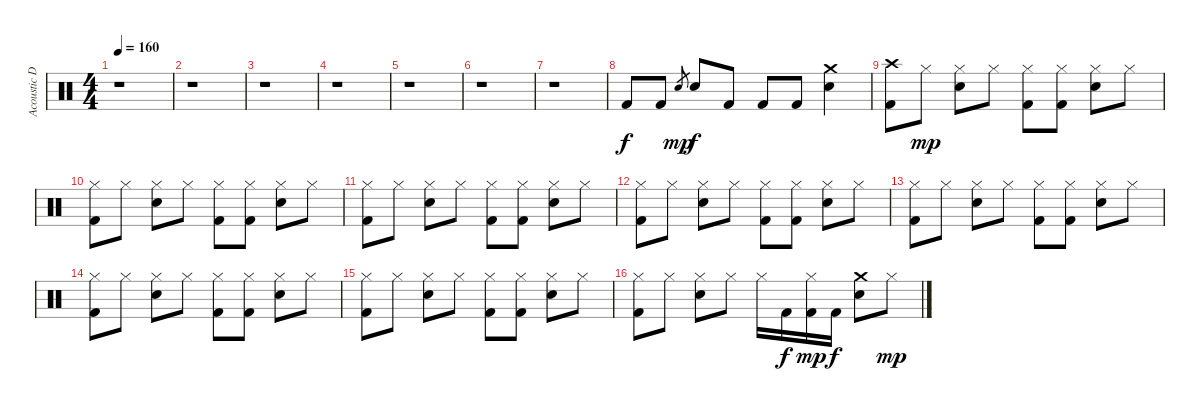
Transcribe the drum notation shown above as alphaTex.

\track ("Acoustic Drums" "Acoustic D") {instrument percussion}
\staff {score}
\articulation defaults
\ts (4 4)
\tempo 160
\clef neutral
\ks c
r.1{dy f} |
r.1 |
r.1 |
r.1 |
r.1 |
r.1 |
r.1 |
"Kick (hit) 2".8{volume 13} "Kick (hit) 2".8 "Snare (hit) 2".8{gr dy mp} "Snare (hit) 2".8{dy f} "Kick (hit) 2".8 "Kick (hit) 2".8 "Kick (hit) 2".8 ("Crash medium (hit)" "Snare (hit) 2").4 |
("Crash high (hit)" "Kick (hit) 2").8{volume 13} "Hi-Hat (closed)".8{dy mp} ("Hi-Hat (closed)" "Snare (hit) 2").8 "Hi-Hat (closed)".8 ("Hi-Hat (closed)" "Kick (hit) 2").8 ("Hi-Hat (closed)" "Kick (hit) 2").8 ("Hi-Hat (closed)" "Snare (hit) 2").8 "Hi-Hat (closed)".8 |
("Hi-Hat (closed)" "Kick (hit) 2").8 "Hi-Hat (closed)".8 ("Hi-Hat (closed)" "Snare (hit) 2").8 "Hi-Hat (closed)".8 ("Hi-Hat (closed)" "Kick (hit) 2").8 ("Hi-Hat (closed)" "Kick (hit) 2").8 ("Hi-Hat (closed)" "Snare (hit) 2").8 "Hi-Hat (closed)".8 |
("Hi-Hat (closed)" "Kick (hit) 2").8 "Hi-Hat (closed)".8 ("Hi-Hat (closed)" "Snare (hit) 2").8 "Hi-Hat (closed)".8 ("Hi-Hat (closed)" "Kick (hit) 2").8 ("Hi-Hat (closed)" "Kick (hit) 2").8 ("Hi-Hat (closed)" "Snare (hit) 2").8 "Hi-Hat (closed)".8 |
("Hi-Hat (closed)" "Kick (hit) 2").8 "Hi-Hat (closed)".8 ("Hi-Hat (closed)" "Snare (hit) 2").8 "Hi-Hat (closed)".8 ("Hi-Hat (closed)" "Kick (hit) 2").8 ("Hi-Hat (closed)" "Kick (hit) 2").8 ("Hi-Hat (closed)" "Snare (hit) 2").8 "Hi-Hat (closed)".8 |
("Hi-Hat (closed)" "Kick (hit) 2").8 "Hi-Hat (closed)".8 ("Hi-Hat (closed)" "Snare (hit) 2").8 "Hi-Hat (closed)".8 ("Hi-Hat (closed)" "Kick (hit) 2").8 ("Hi-Hat (closed)" "Kick (hit) 2").8 ("Hi-Hat (closed)" "Snare (hit) 2").8 "Hi-Hat (closed)".8 |
("Hi-Hat (closed)" "Kick (hit) 2").8 "Hi-Hat (closed)".8 ("Hi-Hat (closed)" "Snare (hit) 2").8 "Hi-Hat (closed)".8 ("Hi-Hat (closed)" "Kick (hit) 2").8 ("Hi-Hat (closed)" "Kick (hit) 2").8 ("Hi-Hat (closed)" "Snare (hit) 2").8 "Hi-Hat (closed)".8 |
("Hi-Hat (closed)" "Kick (hit) 2").8 "Hi-Hat (closed)".8 ("Hi-Hat (closed)" "Snare (hit) 2").8 "Hi-Hat (closed)".8 ("Hi-Hat (closed)" "Kick (hit) 2").8 ("Hi-Hat (closed)" "Kick (hit) 2").8 ("Hi-Hat (closed)" "Snare (hit) 2").8 "Hi-Hat (closed)".8 |
("Hi-Hat (closed)" "Kick (hit) 2").8 "Hi-Hat (closed)".8 ("Hi-Hat (closed)" "Snare (hit) 2").8 "Hi-Hat (closed)".8 "Hi-Hat (closed)".16 "Kick (hit) 2".16{dy f} ("Hi-Hat (closed)" "Kick (hit) 2").16{dy mp} "Kick (hit) 2".16{dy f} ("Crash medium (hit)" "Snare (hit) 2").8 "Hi-Hat (closed)".8{dy mp}
